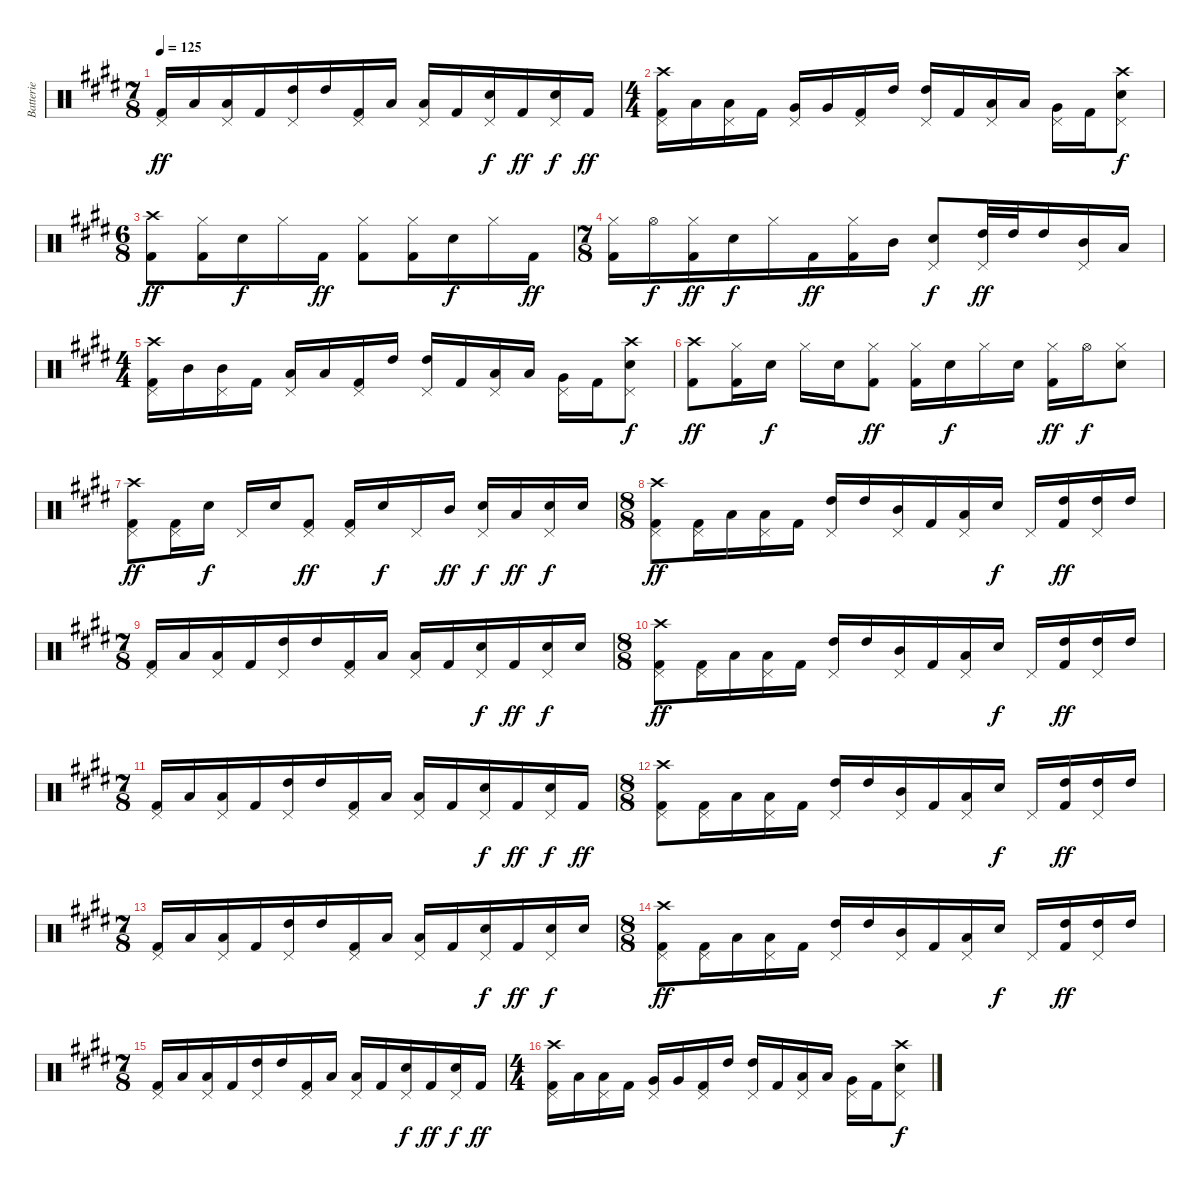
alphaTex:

\track ("Batterie" "Batterie") {instrument percussion}
\staff {score}
\articulation defaults
\ts (7 8)
\tempo 125
\clef neutral
\ks e
("Pedal Hi-Hat (hit)" "Kick (hit) 2").16{dy ff} "Low Tom (hit)".16 ("Pedal Hi-Hat (hit)" "Low Tom (hit)").16 "Kick (hit) 2".16 ("Pedal Hi-Hat (hit)" "High Tom (hit)").16 "High Tom (hit)".16 ("Pedal Hi-Hat (hit)" "Kick (hit) 2").16 "Low Tom (hit)".16 ("Pedal Hi-Hat (hit)" "Low Tom (hit)").16 "Kick (hit) 2".16 ("Pedal Hi-Hat (hit)" "Snare (hit) 2").16{dy f} "Kick (hit) 2".16{dy ff} ("Pedal Hi-Hat (hit)" "Snare (hit) 2").16{dy f} "Kick (hit) 2".16{dy ff} |
\ts (4 4)
("Crash high (hit)" "Pedal Hi-Hat (hit)" "Kick (hit) 2").16 "Low Tom (hit)".16 ("Pedal Hi-Hat (hit)" "Low Tom (hit)").16 "Kick (hit) 2".16 ("Pedal Hi-Hat (hit)" "Very Low Tom (hit)").16 "Very Low Tom (hit)".16 ("Pedal Hi-Hat (hit)" "Kick (hit) 2").16 "High Tom (hit)".16 ("Pedal Hi-Hat (hit)" "High Tom (hit)").16 "Kick (hit) 2".16 ("Pedal Hi-Hat (hit)" "Low Tom (hit)").16 "Low Tom (hit)".16 ("Pedal Hi-Hat (hit)" "Very Low Tom (hit)").16 "Kick (hit) 2".16 ("Crash high (hit)" "Pedal Hi-Hat (hit)" "Snare (hit) 2").8{dy f} |
\ts (6 8)
("Crash high (hit)" "Kick (hit) 2").8{dy ff} ("Hi-Hat (closed)" "Kick (hit) 2").16 "Snare (hit) 2".16{dy f} "Hi-Hat (closed)".16 "Kick (hit) 2".16{dy ff} ("Hi-Hat (closed)" "Kick (hit) 2").8 ("Hi-Hat (closed)" "Kick (hit) 2").16 "Snare (hit) 2".16{dy f} "Hi-Hat (closed)".16 "Kick (hit) 2".16{dy ff} |
\ts (7 8)
("Hi-Hat (closed)" "Kick (hit) 2").16 "Hi-Hat (open)".16{dy f} ("Hi-Hat (closed)" "Kick (hit) 2").16{dy ff} "Snare (hit) 2".16{dy f} "Hi-Hat (closed)".16 "Kick (hit) 2".16{dy ff} ("Hi-Hat (closed)" "Kick (hit) 2").16 "Mid Tom (hit)".16 ("Pedal Hi-Hat (hit)" "Snare (hit) 2").8{dy f} ("Pedal Hi-Hat (hit)" "High Tom (hit)").32{dy ff} "High Tom (hit)".32 "High Tom (hit)".16 ("Pedal Hi-Hat (hit)" "Mid Tom (hit)").16 "Low Tom (hit)".16 |
\ts (4 4)
("Crash high (hit)" "Pedal Hi-Hat (hit)" "Kick (hit) 2").16 "Mid Tom (hit)".16 ("Pedal Hi-Hat (hit)" "Mid Tom (hit)").16 "Kick (hit) 2".16 ("Pedal Hi-Hat (hit)" "Low Tom (hit)").16 "Low Tom (hit)".16 ("Pedal Hi-Hat (hit)" "Kick (hit) 2").16 "High Tom (hit)".16 ("Pedal Hi-Hat (hit)" "High Tom (hit)").16 "Kick (hit) 2".16 ("Pedal Hi-Hat (hit)" "Low Tom (hit)").16 "Low Tom (hit)".16 ("Pedal Hi-Hat (hit)" "Very Low Tom (hit)").16 "Kick (hit) 2".16 ("Crash high (hit)" "Pedal Hi-Hat (hit)" "Snare (hit) 2").8{dy f} |
("Crash high (hit)" "Kick (hit) 2").8{dy ff} ("Hi-Hat (closed)" "Kick (hit) 2").16 "Snare (hit) 2".16{dy f} "Hi-Hat (closed)".16 "Snare (hit) 2".16 ("Hi-Hat (closed)" "Kick (hit) 2").8{dy ff} ("Hi-Hat (closed)" "Kick (hit) 2").16 "Snare (hit) 2".16{dy f} "Hi-Hat (closed)".16 "Snare (hit) 2".16 ("Hi-Hat (closed)" "Kick (hit) 2").16{dy ff} "Hi-Hat (open)".16{dy f} ("Hi-Hat (closed)" "Snare (hit) 2").8 |
("Crash high (hit)" "Pedal Hi-Hat (hit)" "Kick (hit) 2").8{dy ff} ("Pedal Hi-Hat (hit)" "Kick (hit) 2").16 "Snare (hit) 2".16{dy f} "Pedal Hi-Hat (hit)".16 "Snare (hit) 2".16 ("Pedal Hi-Hat (hit)" "Kick (hit) 2").8{dy ff} ("Pedal Hi-Hat (hit)" "Kick (hit) 2").16 "Snare (hit) 2".16{dy f} "Pedal Hi-Hat (hit)".16 "Mid Tom (hit)".16{dy ff} ("Pedal Hi-Hat (hit)" "Snare (hit) 2").16{dy f} "Low Tom (hit)".16{dy ff} ("Pedal Hi-Hat (hit)" "Snare (hit) 2").16{dy f} "Snare (hit) 2".16 |
\ts (8 8)
("Crash high (hit)" "Pedal Hi-Hat (hit)" "Kick (hit) 2").8{dy ff} ("Pedal Hi-Hat (hit)" "Kick (hit) 2").16 "Low Tom (hit)".16 ("Pedal Hi-Hat (hit)" "Low Tom (hit)").16 "Kick (hit) 2".16 ("Pedal Hi-Hat (hit)" "High Tom (hit)").16 "High Tom (hit)".16 ("Pedal Hi-Hat (hit)" "Mid Tom (hit)").16 "Kick (hit) 2".16 ("Pedal Hi-Hat (hit)" "Low Tom (hit)").16 "Snare (hit) 2".16{dy f} "Pedal Hi-Hat (hit)".16 ("High Tom (hit)" "Kick (hit) 2").16{dy ff} ("Pedal Hi-Hat (hit)" "High Tom (hit)").16 "High Tom (hit)".16 |
\ts (7 8)
("Pedal Hi-Hat (hit)" "Kick (hit) 2").16 "Low Tom (hit)".16 ("Pedal Hi-Hat (hit)" "Low Tom (hit)").16 "Kick (hit) 2".16 ("Pedal Hi-Hat (hit)" "High Tom (hit)").16 "High Tom (hit)".16 ("Pedal Hi-Hat (hit)" "Kick (hit) 2").16 "Low Tom (hit)".16 ("Pedal Hi-Hat (hit)" "Low Tom (hit)").16 "Kick (hit) 2".16 ("Pedal Hi-Hat (hit)" "Snare (hit) 2").16{dy f} "Kick (hit) 2".16{dy ff} ("Pedal Hi-Hat (hit)" "Snare (hit) 2").16{dy f} "Snare (hit) 2".16 |
\ts (8 8)
("Crash high (hit)" "Pedal Hi-Hat (hit)" "Kick (hit) 2").8{dy ff} ("Pedal Hi-Hat (hit)" "Kick (hit) 2").16 "Low Tom (hit)".16 ("Pedal Hi-Hat (hit)" "Low Tom (hit)").16 "Kick (hit) 2".16 ("Pedal Hi-Hat (hit)" "High Tom (hit)").16 "High Tom (hit)".16 ("Pedal Hi-Hat (hit)" "Mid Tom (hit)").16 "Kick (hit) 2".16 ("Pedal Hi-Hat (hit)" "Low Tom (hit)").16 "Snare (hit) 2".16{dy f} "Pedal Hi-Hat (hit)".16 ("High Tom (hit)" "Kick (hit) 2").16{dy ff} ("Pedal Hi-Hat (hit)" "High Tom (hit)").16 "High Tom (hit)".16 |
\ts (7 8)
("Pedal Hi-Hat (hit)" "Kick (hit) 2").16 "Low Tom (hit)".16 ("Pedal Hi-Hat (hit)" "Low Tom (hit)").16 "Kick (hit) 2".16 ("Pedal Hi-Hat (hit)" "High Tom (hit)").16 "High Tom (hit)".16 ("Pedal Hi-Hat (hit)" "Kick (hit) 2").16 "Low Tom (hit)".16 ("Pedal Hi-Hat (hit)" "Low Tom (hit)").16 "Kick (hit) 2".16 ("Pedal Hi-Hat (hit)" "Snare (hit) 2").16{dy f} "Kick (hit) 2".16{dy ff} ("Pedal Hi-Hat (hit)" "Snare (hit) 2").16{dy f} "Kick (hit) 2".16{dy ff} |
\ts (8 8)
("Crash high (hit)" "Pedal Hi-Hat (hit)" "Kick (hit) 2").8 ("Pedal Hi-Hat (hit)" "Kick (hit) 2").16 "Low Tom (hit)".16 ("Pedal Hi-Hat (hit)" "Low Tom (hit)").16 "Kick (hit) 2".16 ("Pedal Hi-Hat (hit)" "High Tom (hit)").16 "High Tom (hit)".16 ("Pedal Hi-Hat (hit)" "Mid Tom (hit)").16 "Kick (hit) 2".16 ("Pedal Hi-Hat (hit)" "Low Tom (hit)").16 "Snare (hit) 2".16{dy f} "Pedal Hi-Hat (hit)".16 ("High Tom (hit)" "Kick (hit) 2").16{dy ff} ("Pedal Hi-Hat (hit)" "High Tom (hit)").16 "High Tom (hit)".16 |
\ts (7 8)
("Pedal Hi-Hat (hit)" "Kick (hit) 2").16 "Low Tom (hit)".16 ("Pedal Hi-Hat (hit)" "Low Tom (hit)").16 "Kick (hit) 2".16 ("Pedal Hi-Hat (hit)" "High Tom (hit)").16 "High Tom (hit)".16 ("Pedal Hi-Hat (hit)" "Kick (hit) 2").16 "Low Tom (hit)".16 ("Pedal Hi-Hat (hit)" "Low Tom (hit)").16 "Kick (hit) 2".16 ("Pedal Hi-Hat (hit)" "Snare (hit) 2").16{dy f} "Kick (hit) 2".16{dy ff} ("Pedal Hi-Hat (hit)" "Snare (hit) 2").16{dy f} "Snare (hit) 2".16 |
\ts (8 8)
("Crash high (hit)" "Pedal Hi-Hat (hit)" "Kick (hit) 2").8{dy ff} ("Pedal Hi-Hat (hit)" "Kick (hit) 2").16 "Low Tom (hit)".16 ("Pedal Hi-Hat (hit)" "Low Tom (hit)").16 "Kick (hit) 2".16 ("Pedal Hi-Hat (hit)" "High Tom (hit)").16 "High Tom (hit)".16 ("Pedal Hi-Hat (hit)" "Mid Tom (hit)").16 "Kick (hit) 2".16 ("Pedal Hi-Hat (hit)" "Low Tom (hit)").16 "Snare (hit) 2".16{dy f} "Pedal Hi-Hat (hit)".16 ("High Tom (hit)" "Kick (hit) 2").16{dy ff} ("Pedal Hi-Hat (hit)" "High Tom (hit)").16 "High Tom (hit)".16 |
\ts (7 8)
("Pedal Hi-Hat (hit)" "Kick (hit) 2").16 "Low Tom (hit)".16 ("Pedal Hi-Hat (hit)" "Low Tom (hit)").16 "Kick (hit) 2".16 ("Pedal Hi-Hat (hit)" "High Tom (hit)").16 "High Tom (hit)".16 ("Pedal Hi-Hat (hit)" "Kick (hit) 2").16 "Low Tom (hit)".16 ("Pedal Hi-Hat (hit)" "Low Tom (hit)").16 "Kick (hit) 2".16 ("Pedal Hi-Hat (hit)" "Snare (hit) 2").16{dy f} "Kick (hit) 2".16{dy ff} ("Pedal Hi-Hat (hit)" "Snare (hit) 2").16{dy f} "Kick (hit) 2".16{dy ff} |
\ts (4 4)
("Crash high (hit)" "Pedal Hi-Hat (hit)" "Kick (hit) 2").16 "Low Tom (hit)".16 ("Pedal Hi-Hat (hit)" "Low Tom (hit)").16 "Kick (hit) 2".16 ("Pedal Hi-Hat (hit)" "Very Low Tom (hit)").16 "Very Low Tom (hit)".16 ("Pedal Hi-Hat (hit)" "Kick (hit) 2").16 "High Tom (hit)".16 ("Pedal Hi-Hat (hit)" "High Tom (hit)").16 "Kick (hit) 2".16 ("Pedal Hi-Hat (hit)" "Low Tom (hit)").16 "Low Tom (hit)".16 ("Pedal Hi-Hat (hit)" "Very Low Tom (hit)").16 "Kick (hit) 2".16 ("Crash high (hit)" "Pedal Hi-Hat (hit)" "Snare (hit) 2").8{dy f}
